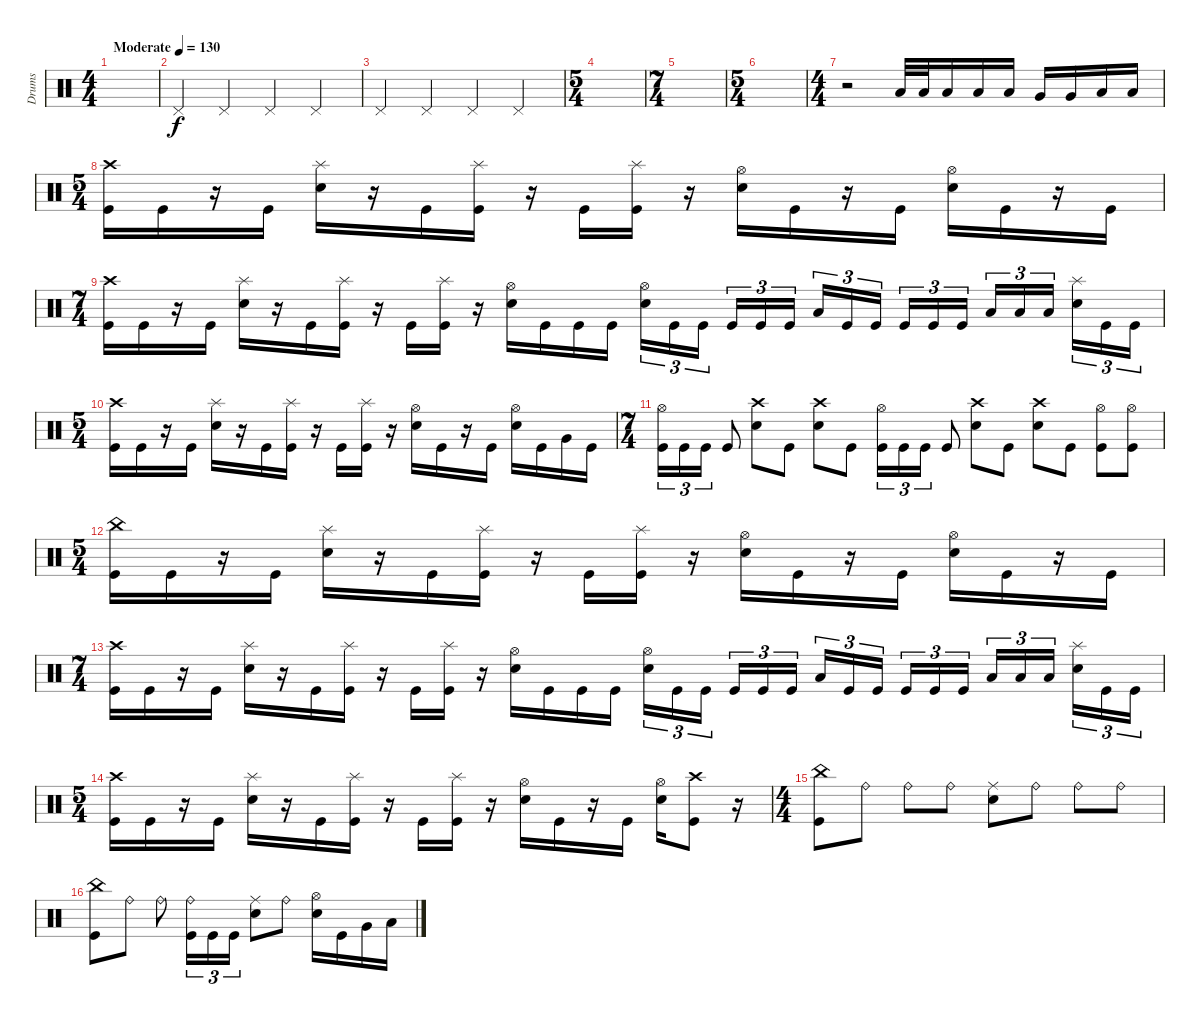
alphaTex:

\track ("Drums" "Drums") {instrument percussion}
\staff {score}
\articulation defaults
\ts (4 4)
\tempo (130 "Moderate")
\clef neutral
\ks c
|
"Pedal Hi-Hat (hit)".4 "Pedal Hi-Hat (hit)".4 "Pedal Hi-Hat (hit)".4 "Pedal Hi-Hat (hit)".4 |
"Pedal Hi-Hat (hit)".4 "Pedal Hi-Hat (hit)".4 "Pedal Hi-Hat (hit)".4 "Pedal Hi-Hat (hit)".4 |
\ts (5 4)
|
\ts (7 4)
|
\ts (5 4)
|
\ts (4 4)
r.2 "Low Tom (hit)".32 "Low Tom (hit)".32 "Low Tom (hit)".16 "Low Tom (hit)".16 "Low Tom (hit)".16 "Very Low Tom (hit)".16 "Very Low Tom (hit)".16 "Low Floor Tom (hit)".16 "Low Floor Tom (hit)".16 |
\ts (5 4)
("Crash high (hit)" "Kick (hit)").16 "Kick (hit)".16 r.16 "Kick (hit)".16 ("Splash (hit)" "Snare (hit) 2").16 r.16 "Kick (hit)".16 ("Splash (hit)" "Kick (hit)").16 r.16 "Kick (hit)".16 ("Splash (hit)" "Kick (hit)").16 r.16 ("Hi-Hat (open)" "Snare (hit) 2").16 "Kick (hit)".16 r.16 "Kick (hit)".16 ("Hi-Hat (open)" "Snare (hit) 2").16 "Kick (hit)".16 r.16 "Kick (hit)".16 |
\ts (7 4)
("Crash high (hit)" "Kick (hit)").16 "Kick (hit)".16 r.16 "Kick (hit)".16 ("Splash (hit)" "Snare (hit) 2").16 r.16 "Kick (hit)".16 ("Splash (hit)" "Kick (hit)").16 r.16 "Kick (hit)".16 ("Splash (hit)" "Kick (hit)").16 r.16 ("Hi-Hat (open)" "Snare (hit) 2").16 "Kick (hit)".16 "Kick (hit)".16 "Kick (hit)".16 ("Hi-Hat (open)" "Snare (hit) 2").16{tu (3 2)} "Kick (hit)".16{tu (3 2)} "Kick (hit)".16{tu (3 2) beam splitsecondary} "Kick (hit)".16{tu (3 2)} "Kick (hit)".16{tu (3 2)} "Kick (hit)".16{tu (3 2)} "Low Tom (hit)".16{tu (3 2)} "Kick (hit)".16{tu (3 2)} "Kick (hit)".16{tu (3 2) beam splitsecondary} "Kick (hit)".16{tu (3 2)} "Kick (hit)".16{tu (3 2)} "Kick (hit)".16{tu (3 2)} "Low Tom (hit)".16{tu (3 2)} "Low Tom (hit)".16{tu (3 2)} "Low Tom (hit)".16{tu (3 2) beam splitsecondary} ("Splash (hit)" "Snare (hit) 2").16{tu (3 2)} "Kick (hit)".16{tu (3 2)} "Kick (hit)".16{tu (3 2)} |
\ts (5 4)
("Crash high (hit)" "Kick (hit)").16 "Kick (hit)".16 r.16 "Kick (hit)".16 ("Splash (hit)" "Snare (hit) 2").16 r.16 "Kick (hit)".16 ("Splash (hit)" "Kick (hit)").16 r.16 "Kick (hit)".16 ("Splash (hit)" "Kick (hit)").16 r.16 ("Hi-Hat (open)" "Snare (hit) 2").16 "Kick (hit)".16 r.16 "Kick (hit)".16 ("Hi-Hat (open)" "Snare (hit) 2").16 "Kick (hit)".16 "Very Low Tom (hit)".16 "Kick (hit)".16 |
\ts (7 4)
("Hi-Hat (open)" "Kick (hit)").16{tu (3 2)} "Kick (hit)".16{tu (3 2)} "Kick (hit)".16{tu (3 2)} "Kick (hit)".8 ("Crash high (hit)" "Snare (hit) 2").8 "Kick (hit)".8 ("Crash high (hit)" "Snare (hit) 2").8 "Kick (hit)".8 ("Hi-Hat (open)" "Kick (hit)").16{tu (3 2)} "Kick (hit)".16{tu (3 2)} "Kick (hit)".16{tu (3 2)} "Kick (hit)".8 ("Crash high (hit)" "Snare (hit) 2").8 "Kick (hit)".8 ("Crash high (hit)" "Snare (hit) 2").8 "Kick (hit)".8 ("Hi-Hat (open)" "Kick (hit)").8 ("Hi-Hat (open)" "Kick (hit)").8 |
\ts (5 4)
("China (hit)" "Kick (hit)").16 "Kick (hit)".16 r.16 "Kick (hit)".16 ("Splash (hit)" "Snare (hit) 2").16 r.16 "Kick (hit)".16 ("Splash (hit)" "Kick (hit)").16 r.16 "Kick (hit)".16 ("Splash (hit)" "Kick (hit)").16 r.16 ("Hi-Hat (open)" "Snare (hit) 2").16 "Kick (hit)".16 r.16 "Kick (hit)".16 ("Hi-Hat (open)" "Snare (hit) 2").16 "Kick (hit)".16 r.16 "Kick (hit)".16 |
\ts (7 4)
("Crash high (hit)" "Kick (hit)").16 "Kick (hit)".16 r.16 "Kick (hit)".16 ("Splash (hit)" "Snare (hit) 2").16 r.16 "Kick (hit)".16 ("Splash (hit)" "Kick (hit)").16 r.16 "Kick (hit)".16 ("Splash (hit)" "Kick (hit)").16 r.16 ("Hi-Hat (open)" "Snare (hit) 2").16 "Kick (hit)".16 "Kick (hit)".16 "Kick (hit)".16 ("Hi-Hat (open)" "Snare (hit) 2").16{tu (3 2)} "Kick (hit)".16{tu (3 2)} "Kick (hit)".16{tu (3 2) beam splitsecondary} "Kick (hit)".16{tu (3 2)} "Kick (hit)".16{tu (3 2)} "Kick (hit)".16{tu (3 2)} "Low Tom (hit)".16{tu (3 2)} "Kick (hit)".16{tu (3 2)} "Kick (hit)".16{tu (3 2) beam splitsecondary} "Kick (hit)".16{tu (3 2)} "Kick (hit)".16{tu (3 2)} "Kick (hit)".16{tu (3 2)} "Low Tom (hit)".16{tu (3 2)} "Low Tom (hit)".16{tu (3 2)} "Low Tom (hit)".16{tu (3 2) beam splitsecondary} ("Splash (hit)" "Snare (hit) 2").16{tu (3 2)} "Kick (hit)".16{tu (3 2)} "Kick (hit)".16{tu (3 2)} |
\ts (5 4)
("Crash high (hit)" "Kick (hit)").16 "Kick (hit)".16 r.16 "Kick (hit)".16 ("Splash (hit)" "Snare (hit) 2").16 r.16 "Kick (hit)".16 ("Splash (hit)" "Kick (hit)").16 r.16 "Kick (hit)".16 ("Splash (hit)" "Kick (hit)").16 r.16 ("Hi-Hat (open)" "Snare (hit) 2").16 "Kick (hit)".16 r.16 "Kick (hit)".16 ("Hi-Hat (open)" "Snare (hit) 2").16 ("Crash high (hit)" "Kick (hit)").8 r.16 |
\ts (4 4)
("China (hit)" "Kick (hit)").8 "Ride (bell)".8 "Ride (bell)".8 "Ride (bell)".8 ("Ride (middle)" "Snare (hit) 2").8 "Ride (bell)".8 "Ride (bell)".8 "Ride (bell)".8 |
("China (hit)" "Kick (hit)").8 "Ride (bell)".8 "Ride (bell)".8 ("Ride (bell)" "Kick (hit)").16{tu (3 2)} "Kick (hit)".16{tu (3 2)} "Kick (hit)".16{tu (3 2)} ("Ride (middle)" "Snare (hit) 2").8 "Ride (bell)".8 ("Hi-Hat (open)" "Snare (hit) 2").16 "Kick (hit)".16 "Very Low Tom (hit)".16 "Low Floor Tom (hit)".16
